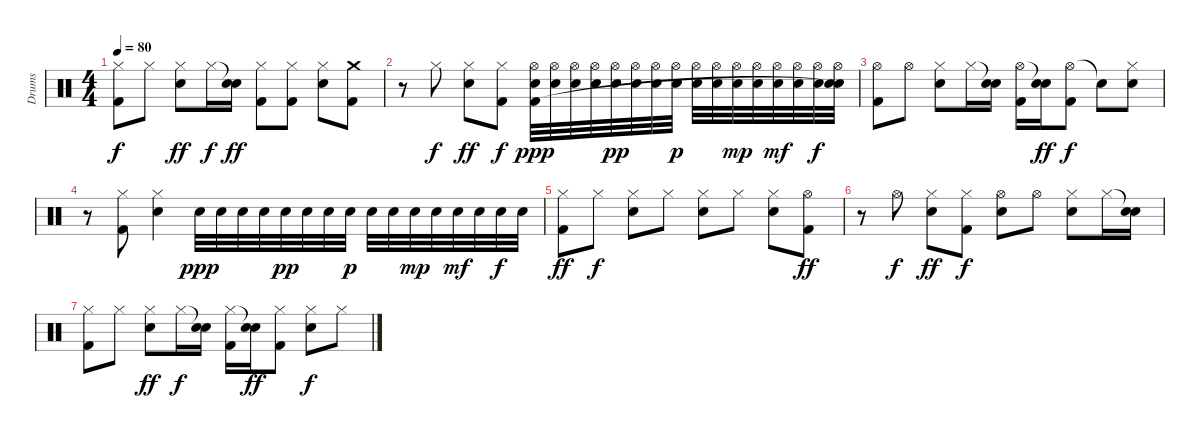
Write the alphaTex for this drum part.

\track ("Drums" "Drums") {instrument percussion}
\staff {score}
\articulation defaults
\ts (4 4)
\tempo 80
\clef neutral
\ks c
("Hi-Hat (closed)" "Kick (hit) 2").8{dy f} "Hi-Hat (closed)".8 ("Hi-Hat (closed)" "Electric Snare (hit)").8{dy ff} "Hi-Hat (closed)".16{dy f} ("Snare (hit)"{t} "Electric Snare (hit)").16{dy ff} ("Hi-Hat (closed)" "Kick (hit) 2").8 ("Hi-Hat (closed)" "Kick (hit) 2").8 ("Hi-Hat (closed)" "Electric Snare (hit)").8 ("Crash medium (hit)" "Kick (hit) 2").8 |
r.8 "Hi-Hat (closed)".8{dy f} ("Hi-Hat (closed)" "Electric Snare (hit)").8{dy ff} ("Hi-Hat (closed)" "Kick (hit) 2").8{dy f} ("Hi-Hat (open)" "Electric Snare (hit)" "Kick (hit) 2").32{dy ppp} ("Hi-Hat (open)" "Electric Snare (hit)").32 ("Hi-Hat (open)" "Electric Snare (hit)").32 ("Hi-Hat (open)" "Electric Snare (hit)").32 ("Hi-Hat (open)" "Electric Snare (hit)").32{dy pp} ("Hi-Hat (open)" "Electric Snare (hit)").32 ("Hi-Hat (open)" "Electric Snare (hit)").32 ("Hi-Hat (open)" "Electric Snare (hit)").32{dy p} ("Hi-Hat (open)" "Electric Snare (hit)").32 ("Hi-Hat (open)" "Electric Snare (hit)").32 ("Hi-Hat (open)" "Electric Snare (hit)").32{dy mp} ("Hi-Hat (open)" "Electric Snare (hit)").32 ("Hi-Hat (open)" "Electric Snare (hit)").32{dy mf} ("Hi-Hat (open)" "Electric Snare (hit)").32 ("Hi-Hat (open)" "Electric Snare (hit)").32{dy f} ("Hi-Hat (open)" "Electric Snare (hit)" "Snare (hit)"{t}).32 |
("Hi-Hat (open)" "Kick (hit) 2").8 "Hi-Hat (open)".8 ("Hi-Hat (closed)" "Electric Snare (hit)").8 "Hi-Hat (closed)".16 ("Snare (hit)"{t} "Electric Snare (hit)").16 ("Hi-Hat (open)" "Kick (hit) 2").16 ("Snare (hit)"{t} "Electric Snare (hit)").16{dy ff} ("Hi-Hat (open)" "Kick (hit) 2").8{dy f} "Snare (hit)"{t}.8 ("Hi-Hat (closed)" "Electric Snare (hit)").8 |
r.8{volume 5} ("Hi-Hat (closed)" "Kick (hit) 2").8 ("Hi-Hat (closed)" "Electric Snare (hit)").4 "Electric Snare (hit)".32{dy ppp} "Electric Snare (hit)".32 "Electric Snare (hit)".32 "Electric Snare (hit)".32 "Electric Snare (hit)".32{dy pp} "Electric Snare (hit)".32 "Electric Snare (hit)".32 "Electric Snare (hit)".32{dy p} "Electric Snare (hit)".32 "Electric Snare (hit)".32 "Electric Snare (hit)".32{dy mp} "Electric Snare (hit)".32 "Electric Snare (hit)".32{dy mf} "Electric Snare (hit)".32 "Electric Snare (hit)".32{dy f} "Electric Snare (hit)".32 |
("Hi-Hat (closed)" "Kick (hit) 2").8{dy ff} "Hi-Hat (closed)".8{dy f} ("Hi-Hat (closed)" "Electric Snare (hit)").8 "Hi-Hat (closed)".8 ("Hi-Hat (closed)" "Electric Snare (hit)").8 "Hi-Hat (closed)".8 ("Hi-Hat (closed)" "Electric Snare (hit)").8 ("Hi-Hat (open)" "Kick (hit) 2").8{dy ff} |
r.8{volume 0} "Hi-Hat (open)".8{dy f} ("Hi-Hat (closed)" "Electric Snare (hit)").8{dy ff} ("Hi-Hat (closed)" "Kick (hit) 2").8{dy f} ("Hi-Hat (open)" "Electric Snare (hit)").8 "Hi-Hat (open)".8 ("Hi-Hat (closed)" "Electric Snare (hit)").8 "Hi-Hat (closed)".16 ("Snare (hit)"{t} "Electric Snare (hit)").16 |
("Hi-Hat (closed)" "Kick (hit) 2").8 "Hi-Hat (closed)".8 ("Hi-Hat (closed)" "Electric Snare (hit)").8{dy ff} "Hi-Hat (closed)".16{dy f} ("Snare (hit)"{t} "Electric Snare (hit)").16 ("Hi-Hat (closed)" "Kick (hit) 2").16 ("Snare (hit)"{t} "Electric Snare (hit)").16{dy ff} ("Hi-Hat (closed)" "Kick (hit) 2").8 ("Hi-Hat (closed)" "Electric Snare (hit)").8{dy f} "Hi-Hat (closed)".8
